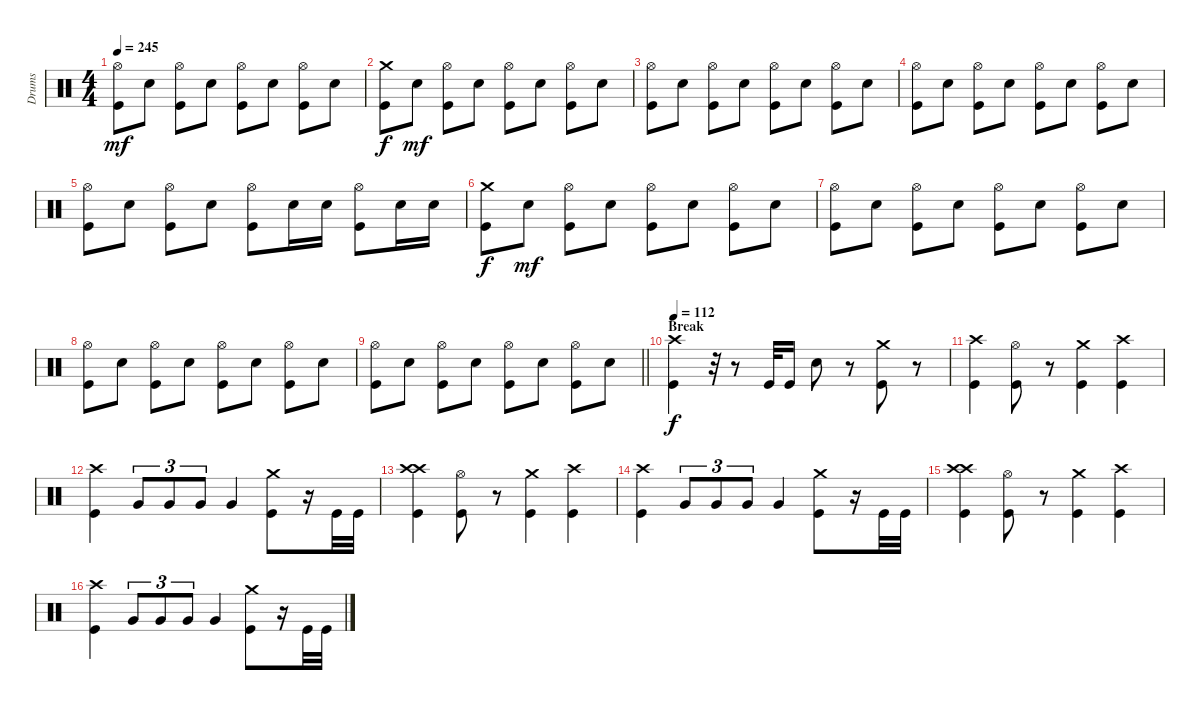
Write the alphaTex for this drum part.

\track ("Drums" "Drums") {instrument percussion}
\staff {score}
\articulation defaults
\ts (4 4)
\tempo 245
\clef neutral
\ks c
("Hi-Hat (open)" "Kick (hit)").8{dy mf} "Snare (hit) 2".8 ("Hi-Hat (open)" "Kick (hit)").8 "Snare (hit) 2".8 ("Hi-Hat (open)" "Kick (hit)").8 "Snare (hit) 2".8 ("Hi-Hat (open)" "Kick (hit)").8 "Snare (hit) 2".8 |
("Crash medium (hit)" "Kick (hit)").8{dy f} "Snare (hit) 2".8{dy mf} ("Hi-Hat (open)" "Kick (hit)").8 "Snare (hit) 2".8 ("Hi-Hat (open)" "Kick (hit)").8 "Snare (hit) 2".8 ("Hi-Hat (open)" "Kick (hit)").8 "Snare (hit) 2".8 |
("Hi-Hat (open)" "Kick (hit)").8 "Snare (hit) 2".8 ("Hi-Hat (open)" "Kick (hit)").8 "Snare (hit) 2".8 ("Hi-Hat (open)" "Kick (hit)").8 "Snare (hit) 2".8 ("Hi-Hat (open)" "Kick (hit)").8 "Snare (hit) 2".8 |
("Hi-Hat (open)" "Kick (hit)").8 "Snare (hit) 2".8 ("Hi-Hat (open)" "Kick (hit)").8 "Snare (hit) 2".8 ("Hi-Hat (open)" "Kick (hit)").8 "Snare (hit) 2".8 ("Hi-Hat (open)" "Kick (hit)").8 "Snare (hit) 2".8 |
("Hi-Hat (open)" "Kick (hit)").8 "Snare (hit) 2".8 ("Hi-Hat (open)" "Kick (hit)").8 "Snare (hit) 2".8 ("Hi-Hat (open)" "Kick (hit)").8 "Snare (hit) 2".16 "Snare (hit) 2".16 ("Hi-Hat (open)" "Kick (hit)").8 "Snare (hit) 2".16 "Snare (hit) 2".16 |
("Crash medium (hit)" "Kick (hit)").8{dy f} "Snare (hit) 2".8{dy mf} ("Hi-Hat (open)" "Kick (hit)").8 "Snare (hit) 2".8 ("Hi-Hat (open)" "Kick (hit)").8 "Snare (hit) 2".8 ("Hi-Hat (open)" "Kick (hit)").8 "Snare (hit) 2".8 |
("Hi-Hat (open)" "Kick (hit)").8 "Snare (hit) 2".8 ("Hi-Hat (open)" "Kick (hit)").8 "Snare (hit) 2".8 ("Hi-Hat (open)" "Kick (hit)").8 "Snare (hit) 2".8 ("Hi-Hat (open)" "Kick (hit)").8 "Snare (hit) 2".8 |
("Hi-Hat (open)" "Kick (hit)").8 "Snare (hit) 2".8 ("Hi-Hat (open)" "Kick (hit)").8 "Snare (hit) 2".8 ("Hi-Hat (open)" "Kick (hit)").8 "Snare (hit) 2".8 ("Hi-Hat (open)" "Kick (hit)").8 "Snare (hit) 2".8 |
\barLineRight lightlight
("Hi-Hat (open)" "Kick (hit)").8 "Snare (hit) 2".8 ("Hi-Hat (open)" "Kick (hit)").8 "Snare (hit) 2".8 ("Hi-Hat (open)" "Kick (hit)").8 "Snare (hit) 2".8 ("Hi-Hat (open)" "Kick (hit)").8 "Snare (hit) 2".8 |
\section ("" "Break")
\tempo 112
("Crash high (hit)" "Kick (hit)").4{dy f} r.32 r.8 "Kick (hit)".32 "Kick (hit)".16 "Snare (hit) 2".8 r.8 ("Crash medium (hit)" "Kick (hit)").8 r.8 |
("Crash high (hit)" "Kick (hit)").4 ("Hi-Hat (open)" "Kick (hit)").8 r.8 ("Crash medium (hit)" "Kick (hit)").4 ("Crash high (hit)" "Kick (hit)").4 |
("Crash high (hit)" "Kick (hit)").4 "Very Low Tom (hit)".8{tu (3 2) volume 16} "Very Low Tom (hit)".8{tu (3 2)} "Very Low Tom (hit)".8{tu (3 2)} "Very Low Tom (hit)".4 ("Crash medium (hit)" "Kick (hit)").8{volume 12} r.16 "Kick (hit)".32 "Kick (hit)".32 |
("Crash high (hit)" "Crash high (hit)" "Kick (hit)").4 ("Hi-Hat (open)" "Kick (hit)").8 r.8 ("Crash medium (hit)" "Kick (hit)").4 ("Crash high (hit)" "Kick (hit)").4 |
("Crash high (hit)" "Kick (hit)").4 "Very Low Tom (hit)".8{tu (3 2) volume 16} "Very Low Tom (hit)".8{tu (3 2)} "Very Low Tom (hit)".8{tu (3 2)} "Very Low Tom (hit)".4 ("Crash medium (hit)" "Kick (hit)").8{volume 12} r.16 "Kick (hit)".32 "Kick (hit)".32 |
("Crash high (hit)" "Crash high (hit)" "Kick (hit)").4 ("Hi-Hat (open)" "Kick (hit)").8 r.8 ("Crash medium (hit)" "Kick (hit)").4 ("Crash high (hit)" "Kick (hit)").4 |
("Crash high (hit)" "Kick (hit)").4 "Very Low Tom (hit)".8{tu (3 2) volume 16} "Very Low Tom (hit)".8{tu (3 2)} "Very Low Tom (hit)".8{tu (3 2)} "Very Low Tom (hit)".4 ("Crash medium (hit)" "Kick (hit)").8{volume 12} r.16 "Kick (hit)".32 "Kick (hit)".32
